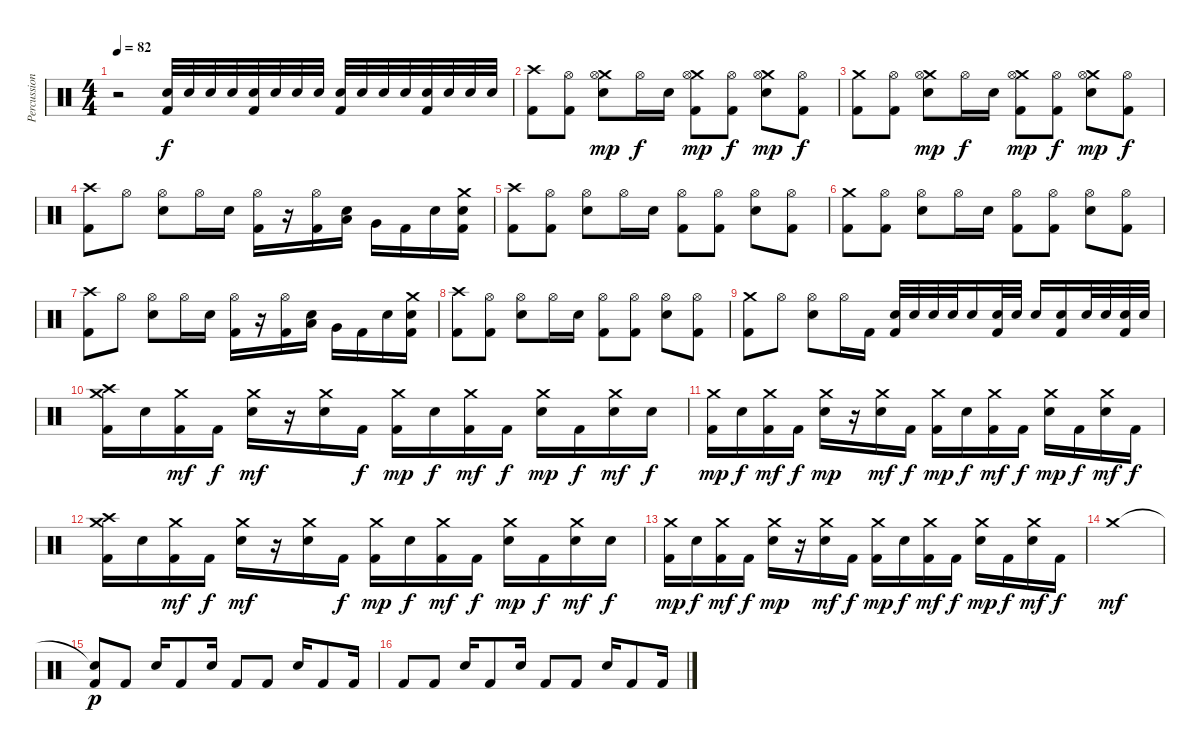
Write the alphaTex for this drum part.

\track ("Percussion" "Percussion") {instrument percussion}
\staff {score}
\articulation defaults
\ts (4 4)
\tempo 82
\clef neutral
\ks c
r.2{dy f} ("Snare (hit) 2" "Kick (hit) 2").32 "Snare (hit) 2".32 "Snare (hit) 2".32 "Snare (hit) 2".32 ("Snare (hit) 2" "Kick (hit) 2").32 "Snare (hit) 2".32 "Snare (hit) 2".32 "Snare (hit) 2".32 ("Snare (hit) 2" "Kick (hit) 2").32 "Snare (hit) 2".32 "Snare (hit) 2".32 "Snare (hit) 2".32 ("Snare (hit) 2" "Kick (hit) 2").32 "Snare (hit) 2".32 "Snare (hit) 2".32 "Snare (hit) 2".32 |
("Crash high (hit)" "Kick (hit) 2").8 ("Hi-Hat (open)" "Kick (hit) 2").8 ("Crash medium (hit)" "Hi-Hat (open)" "Snare (hit) 2").8{dy mp} "Hi-Hat (open)".16{dy f} "Snare (hit) 2".16 ("Crash medium (hit)" "Hi-Hat (open)" "Kick (hit) 2").8{dy mp} ("Hi-Hat (open)" "Kick (hit) 2").8{dy f} ("Crash medium (hit)" "Hi-Hat (open)" "Snare (hit) 2").8{dy mp} ("Hi-Hat (open)" "Kick (hit) 2").8{dy f} |
("Crash medium (hit)" "Kick (hit) 2").8 ("Hi-Hat (open)" "Kick (hit) 2").8 ("Crash medium (hit)" "Hi-Hat (open)" "Snare (hit) 2").8{dy mp} "Hi-Hat (open)".16{dy f} "Snare (hit) 2".16 ("Crash medium (hit)" "Hi-Hat (open)" "Kick (hit) 2").8{dy mp} ("Hi-Hat (open)" "Kick (hit) 2").8{dy f} ("Crash medium (hit)" "Hi-Hat (open)" "Snare (hit) 2").8{dy mp} ("Hi-Hat (open)" "Kick (hit) 2").8{dy f} |
("Crash high (hit)" "Kick (hit) 2").8 "Hi-Hat (open)".8 ("Hi-Hat (open)" "Snare (hit) 2").8 "Hi-Hat (open)".16 "Snare (hit) 2".16 ("Hi-Hat (open)" "Kick (hit) 2").16 r.16 ("Hi-Hat (open)" "Kick (hit) 2").16 ("Low Tom (hit)" "Snare (hit) 2").16 "Very Low Tom (hit)".16 "Kick (hit) 2".16 "Snare (hit) 2".16 ("Crash medium (hit)" "Snare (hit) 2" "Kick (hit) 2").16 |
("Crash high (hit)" "Kick (hit) 2").8 ("Hi-Hat (open)" "Kick (hit) 2").8 ("Hi-Hat (open)" "Snare (hit) 2").8 "Hi-Hat (open)".16 "Snare (hit) 2".16 ("Hi-Hat (open)" "Kick (hit) 2").8 ("Hi-Hat (open)" "Kick (hit) 2").8 ("Hi-Hat (open)" "Snare (hit) 2").8 ("Hi-Hat (open)" "Kick (hit) 2").8 |
("Crash medium (hit)" "Kick (hit) 2").8 ("Hi-Hat (open)" "Kick (hit) 2").8 ("Hi-Hat (open)" "Snare (hit) 2").8 "Hi-Hat (open)".16 "Snare (hit) 2".16 ("Hi-Hat (open)" "Kick (hit) 2").8 ("Hi-Hat (open)" "Kick (hit) 2").8 ("Hi-Hat (open)" "Snare (hit) 2").8 ("Hi-Hat (open)" "Kick (hit) 2").8 |
("Crash high (hit)" "Kick (hit) 2").8 "Hi-Hat (open)".8 ("Hi-Hat (open)" "Snare (hit) 2").8 "Hi-Hat (open)".16 "Snare (hit) 2".16 ("Hi-Hat (open)" "Kick (hit) 2").16 r.16 ("Hi-Hat (open)" "Kick (hit) 2").16 ("Low Tom (hit)" "Snare (hit) 2").16 "Very Low Tom (hit)".16 "Kick (hit) 2".16 "Snare (hit) 2".16 ("Crash medium (hit)" "Snare (hit) 2" "Kick (hit) 2").16 |
("Crash high (hit)" "Kick (hit) 2").8 ("Hi-Hat (open)" "Kick (hit) 2").8 ("Hi-Hat (open)" "Snare (hit) 2").8 "Hi-Hat (open)".16 "Snare (hit) 2".16 ("Hi-Hat (open)" "Kick (hit) 2").8 ("Hi-Hat (open)" "Kick (hit) 2").8 ("Hi-Hat (open)" "Snare (hit) 2").8 ("Hi-Hat (open)" "Kick (hit) 2").8 |
("Crash medium (hit)" "Kick (hit) 2").8 "Hi-Hat (open)".8 ("Hi-Hat (open)" "Snare (hit) 2").8 "Hi-Hat (open)".16 "Kick (hit) 2".16 ("Snare (hit) 2" "Kick (hit) 2").32 "Snare (hit) 2".32 "Snare (hit) 2".32 "Snare (hit) 2".32 "Snare (hit) 2".16 ("Snare (hit) 2" "Kick (hit) 2").32 "Snare (hit) 2".32 "Snare (hit) 2".16 ("Snare (hit) 2" "Kick (hit) 2").16 "Snare (hit) 2".32 "Snare (hit) 2".32 ("Snare (hit) 2" "Kick (hit) 2").32 "Snare (hit) 2".32 |
("Crash high (hit)" "Crash medium (hit)" "Kick (hit) 2").16 "Snare (hit) 2".16 ("Crash medium (hit)" "Kick (hit) 2").16{dy mf} "Kick (hit) 2".16{dy f} ("Crash medium (hit)" "Snare (hit) 2").16{dy mf} r.16 ("Crash medium (hit)" "Snare (hit) 2").16 "Kick (hit) 2".16{dy f} ("Crash medium (hit)" "Kick (hit) 2").16{dy mp} "Snare (hit) 2".16{dy f} ("Crash medium (hit)" "Kick (hit) 2").16{dy mf} "Kick (hit) 2".16{dy f} ("Crash medium (hit)" "Snare (hit) 2").16{dy mp} "Kick (hit) 2".16{dy f} ("Crash medium (hit)" "Snare (hit) 2").16{dy mf} "Snare (hit) 2".16{dy f} |
("Crash medium (hit)" "Kick (hit) 2").16{dy mp} "Snare (hit) 2".16{dy f} ("Crash medium (hit)" "Kick (hit) 2").16{dy mf} "Kick (hit) 2".16{dy f} ("Crash medium (hit)" "Snare (hit) 2").16{dy mp} r.16 ("Crash medium (hit)" "Snare (hit) 2").16{dy mf} "Kick (hit) 2".16{dy f} ("Crash medium (hit)" "Kick (hit) 2").16{dy mp} "Snare (hit) 2".16{dy f} ("Crash medium (hit)" "Kick (hit) 2").16{dy mf} "Kick (hit) 2".16{dy f} ("Crash medium (hit)" "Snare (hit) 2").16{dy mp} "Kick (hit) 2".16{dy f} ("Crash medium (hit)" "Snare (hit) 2").16{dy mf} "Kick (hit) 2".16{dy f} |
("Crash high (hit)" "Crash medium (hit)" "Kick (hit) 2").16 "Snare (hit) 2".16 ("Crash medium (hit)" "Kick (hit) 2").16{dy mf} "Kick (hit) 2".16{dy f} ("Crash medium (hit)" "Snare (hit) 2").16{dy mf} r.16 ("Crash medium (hit)" "Snare (hit) 2").16 "Kick (hit) 2".16{dy f} ("Crash medium (hit)" "Kick (hit) 2").16{dy mp} "Snare (hit) 2".16{dy f} ("Crash medium (hit)" "Kick (hit) 2").16{dy mf} "Kick (hit) 2".16{dy f} ("Crash medium (hit)" "Snare (hit) 2").16{dy mp} "Kick (hit) 2".16{dy f} ("Crash medium (hit)" "Snare (hit) 2").16{dy mf} "Snare (hit) 2".16{dy f} |
("Crash medium (hit)" "Kick (hit) 2").16{dy mp} "Snare (hit) 2".16{dy f} ("Crash medium (hit)" "Kick (hit) 2").16{dy mf} "Kick (hit) 2".16{dy f} ("Crash medium (hit)" "Snare (hit) 2").16{dy mp} r.16 ("Crash medium (hit)" "Snare (hit) 2").16{dy mf} "Kick (hit) 2".16{dy f} ("Crash medium (hit)" "Kick (hit) 2").16{dy mp} "Snare (hit) 2".16{dy f} ("Crash medium (hit)" "Kick (hit) 2").16{dy mf} "Kick (hit) 2".16{dy f} ("Crash medium (hit)" "Snare (hit) 2").16{dy mp} "Kick (hit) 2".16{dy f} ("Crash medium (hit)" "Snare (hit) 2").16{dy mf} "Kick (hit) 2".16{dy f} |
"Crash medium (hit)".1{dy mf} |
("Snare (hit)"{t} "Kick (hit) 2").8{dy p volume 6} "Kick (hit) 2".8 "Snare (hit) 2".16 "Kick (hit) 2".8 "Snare (hit) 2".16 "Kick (hit) 2".8 "Kick (hit) 2".8 "Snare (hit) 2".16 "Kick (hit) 2".8 "Kick (hit) 2".16 |
"Kick (hit) 2".8 "Kick (hit) 2".8 "Snare (hit) 2".16 "Kick (hit) 2".8 "Snare (hit) 2".16 "Kick (hit) 2".8 "Kick (hit) 2".8 "Snare (hit) 2".16 "Kick (hit) 2".8 "Kick (hit) 2".16
